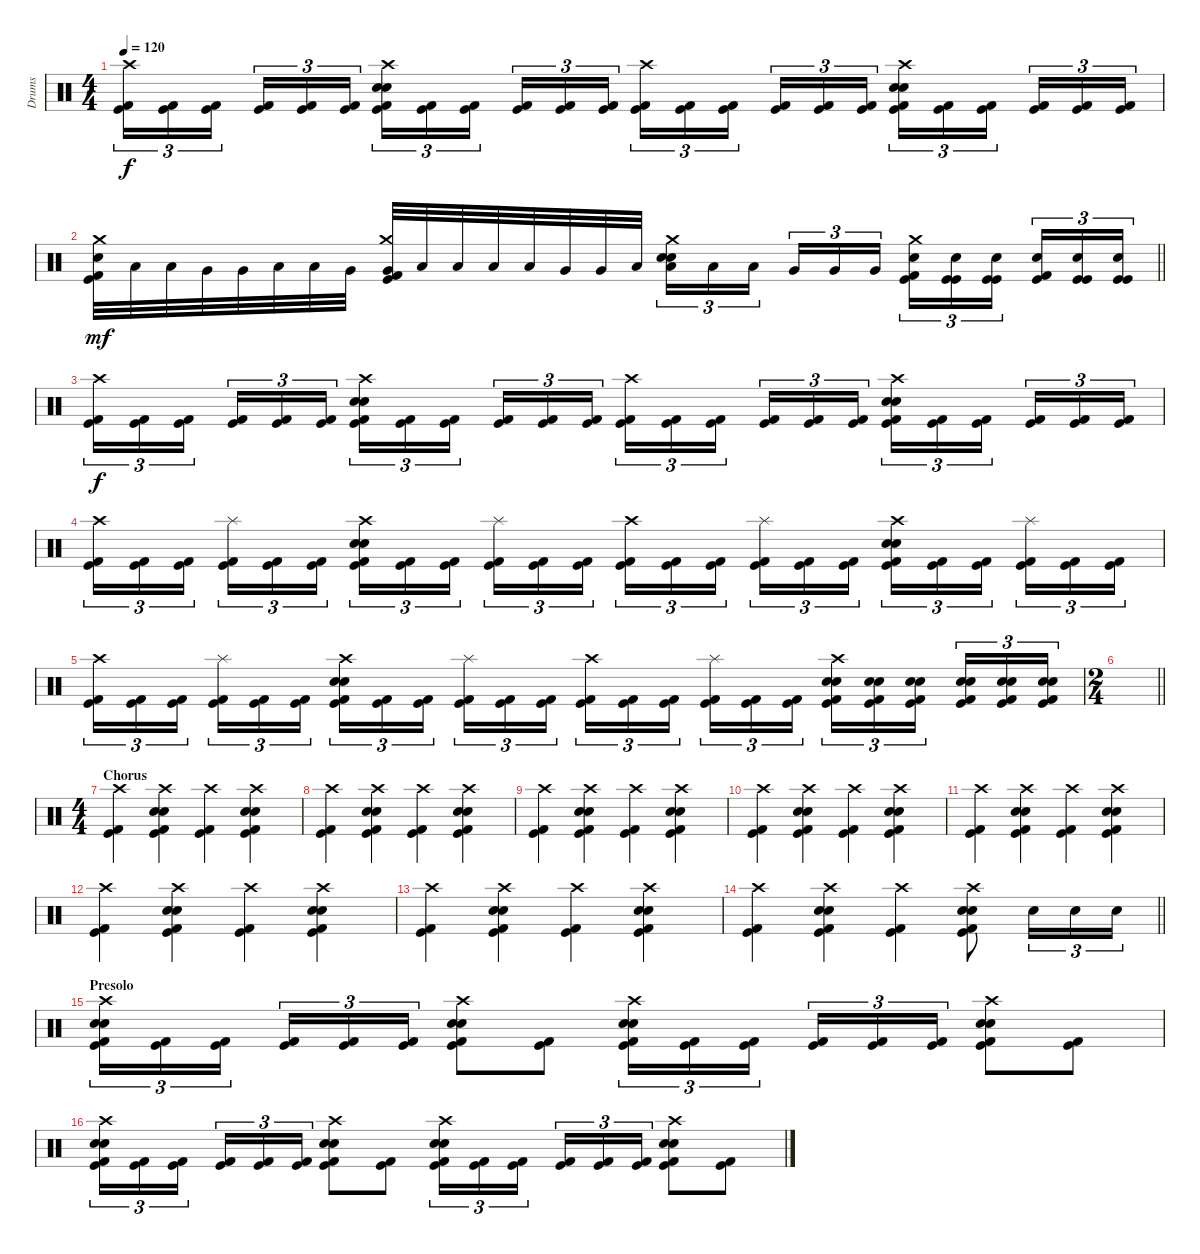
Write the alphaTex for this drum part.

\track ("Drums" "Drums") {instrument percussion}
\staff {score}
\articulation defaults
\ts (4 4)
\tempo 120
\clef neutral
\ks c
("Crash high (hit)" "Kick (hit) 2" "Kick (hit)").16{tu (3 2) dy f} ("Kick (hit) 2" "Kick (hit)").16{tu (3 2)} ("Kick (hit) 2" "Kick (hit)").16{tu (3 2) beam splitsecondary} ("Kick (hit) 2" "Kick (hit)").16{tu (3 2)} ("Kick (hit) 2" "Kick (hit)").16{tu (3 2)} ("Kick (hit) 2" "Kick (hit)").16{tu (3 2)} ("Crash high (hit)" "Electric Snare (hit)" "Electric Snare (hit)" "Kick (hit) 2" "Kick (hit)").16{tu (3 2)} ("Kick (hit) 2" "Kick (hit)").16{tu (3 2)} ("Kick (hit) 2" "Kick (hit)").16{tu (3 2) beam splitsecondary} ("Kick (hit) 2" "Kick (hit)").16{tu (3 2)} ("Kick (hit) 2" "Kick (hit)").16{tu (3 2)} ("Kick (hit) 2" "Kick (hit)").16{tu (3 2)} ("Crash high (hit)" "Kick (hit) 2" "Kick (hit)").16{tu (3 2)} ("Kick (hit) 2" "Kick (hit)").16{tu (3 2)} ("Kick (hit) 2" "Kick (hit)").16{tu (3 2) beam splitsecondary} ("Kick (hit) 2" "Kick (hit)").16{tu (3 2)} ("Kick (hit) 2" "Kick (hit)").16{tu (3 2)} ("Kick (hit) 2" "Kick (hit)").16{tu (3 2)} ("Crash high (hit)" "Electric Snare (hit)" "Electric Snare (hit)" "Kick (hit) 2" "Kick (hit)").16{tu (3 2)} ("Kick (hit) 2" "Kick (hit)").16{tu (3 2)} ("Kick (hit) 2" "Kick (hit)").16{tu (3 2) beam splitsecondary} ("Kick (hit) 2" "Kick (hit)").16{tu (3 2)} ("Kick (hit) 2" "Kick (hit)").16{tu (3 2)} ("Kick (hit) 2" "Kick (hit)").16{tu (3 2)} |
\barLineRight lightlight
("Crash medium (hit)" "Electric Snare (hit)" "Kick (hit)" "Kick (hit) 2").32{dy mf} "Low Tom (hit)".32 "Low Tom (hit)".32 "Very Low Tom (hit)".32 "Very Low Tom (hit)".32 "Low Floor Tom (hit)".32 "Low Floor Tom (hit)".32 "Very Low Tom (hit)".32 ("Crash medium (hit)" "Very Low Tom (hit)" "Kick (hit)" "Kick (hit) 2").32 "Low Floor Tom (hit)".32 "Low Floor Tom (hit)".32 "Low Tom (hit)".32 "Low Tom (hit)".32 "Very Low Tom (hit)".32 "Very Low Tom (hit)".32 "Low Floor Tom (hit)".32 ("Crash medium (hit)" "Low Floor Tom (hit)" "Electric Snare (hit)" "Electric Snare (hit)").16{tu (3 2)} "Low Floor Tom (hit)".16{tu (3 2)} "Low Floor Tom (hit)".16{tu (3 2) beam splitsecondary} "Very Low Tom (hit)".16{tu (3 2)} "Very Low Tom (hit)".16{tu (3 2)} "Very Low Tom (hit)".16{tu (3 2)} ("Crash medium (hit)" "Electric Snare (hit)" "Kick (hit)" "Kick (hit) 2").16{tu (3 2)} ("Electric Snare (hit)" "Kick (hit)" "Kick (hit)").16{tu (3 2)} ("Electric Snare (hit)" "Kick (hit)" "Kick (hit)").16{tu (3 2) beam splitsecondary} ("Electric Snare (hit)" "Kick (hit) 2" "Kick (hit)").16{tu (3 2)} ("Electric Snare (hit)" "Kick (hit)" "Kick (hit)").16{tu (3 2)} ("Electric Snare (hit)" "Kick (hit)" "Kick (hit)").16{tu (3 2)} |
("Crash high (hit)" "Kick (hit) 2" "Kick (hit)").16{tu (3 2) dy f} ("Kick (hit) 2" "Kick (hit)").16{tu (3 2)} ("Kick (hit) 2" "Kick (hit)").16{tu (3 2) beam splitsecondary} ("Kick (hit) 2" "Kick (hit)").16{tu (3 2)} ("Kick (hit) 2" "Kick (hit)").16{tu (3 2)} ("Kick (hit) 2" "Kick (hit)").16{tu (3 2)} ("Crash high (hit)" "Electric Snare (hit)" "Electric Snare (hit)" "Kick (hit) 2" "Kick (hit)").16{tu (3 2)} ("Kick (hit) 2" "Kick (hit)").16{tu (3 2)} ("Kick (hit) 2" "Kick (hit)").16{tu (3 2) beam splitsecondary} ("Kick (hit) 2" "Kick (hit)").16{tu (3 2)} ("Kick (hit) 2" "Kick (hit)").16{tu (3 2)} ("Kick (hit) 2" "Kick (hit)").16{tu (3 2)} ("Crash high (hit)" "Kick (hit) 2" "Kick (hit)").16{tu (3 2)} ("Kick (hit) 2" "Kick (hit)").16{tu (3 2)} ("Kick (hit) 2" "Kick (hit)").16{tu (3 2) beam splitsecondary} ("Kick (hit) 2" "Kick (hit)").16{tu (3 2)} ("Kick (hit) 2" "Kick (hit)").16{tu (3 2)} ("Kick (hit) 2" "Kick (hit)").16{tu (3 2)} ("Crash high (hit)" "Electric Snare (hit)" "Electric Snare (hit)" "Kick (hit) 2" "Kick (hit)").16{tu (3 2)} ("Kick (hit) 2" "Kick (hit)").16{tu (3 2)} ("Kick (hit) 2" "Kick (hit)").16{tu (3 2) beam splitsecondary} ("Kick (hit) 2" "Kick (hit)").16{tu (3 2)} ("Kick (hit) 2" "Kick (hit)").16{tu (3 2)} ("Kick (hit) 2" "Kick (hit)").16{tu (3 2)} |
("Crash high (hit)" "Kick (hit) 2" "Kick (hit)").16{tu (3 2)} ("Kick (hit) 2" "Kick (hit)").16{tu (3 2)} ("Kick (hit) 2" "Kick (hit)").16{tu (3 2) beam splitsecondary} ("Splash (hit)" "Kick (hit) 2" "Kick (hit)").16{tu (3 2)} ("Kick (hit) 2" "Kick (hit)").16{tu (3 2)} ("Kick (hit) 2" "Kick (hit)").16{tu (3 2)} ("Crash high (hit)" "Electric Snare (hit)" "Electric Snare (hit)" "Kick (hit) 2" "Kick (hit)").16{tu (3 2)} ("Kick (hit) 2" "Kick (hit)").16{tu (3 2)} ("Kick (hit) 2" "Kick (hit)").16{tu (3 2) beam splitsecondary} ("Splash (hit)" "Kick (hit) 2" "Kick (hit)").16{tu (3 2)} ("Kick (hit) 2" "Kick (hit)").16{tu (3 2)} ("Kick (hit) 2" "Kick (hit)").16{tu (3 2)} ("Crash high (hit)" "Kick (hit) 2" "Kick (hit)").16{tu (3 2)} ("Kick (hit) 2" "Kick (hit)").16{tu (3 2)} ("Kick (hit) 2" "Kick (hit)").16{tu (3 2) beam splitsecondary} ("Splash (hit)" "Kick (hit) 2" "Kick (hit)").16{tu (3 2)} ("Kick (hit) 2" "Kick (hit)").16{tu (3 2)} ("Kick (hit) 2" "Kick (hit)").16{tu (3 2)} ("Crash high (hit)" "Electric Snare (hit)" "Electric Snare (hit)" "Kick (hit) 2" "Kick (hit)").16{tu (3 2)} ("Kick (hit) 2" "Kick (hit)").16{tu (3 2)} ("Kick (hit) 2" "Kick (hit)").16{tu (3 2) beam splitsecondary} ("Splash (hit)" "Kick (hit) 2" "Kick (hit)").16{tu (3 2)} ("Kick (hit) 2" "Kick (hit)").16{tu (3 2)} ("Kick (hit) 2" "Kick (hit)").16{tu (3 2)} |
("Crash high (hit)" "Kick (hit) 2" "Kick (hit)").16{tu (3 2)} ("Kick (hit) 2" "Kick (hit)").16{tu (3 2)} ("Kick (hit) 2" "Kick (hit)").16{tu (3 2) beam splitsecondary} ("Splash (hit)" "Kick (hit) 2" "Kick (hit)").16{tu (3 2)} ("Kick (hit) 2" "Kick (hit)").16{tu (3 2)} ("Kick (hit) 2" "Kick (hit)").16{tu (3 2)} ("Crash high (hit)" "Electric Snare (hit)" "Electric Snare (hit)" "Kick (hit) 2" "Kick (hit)").16{tu (3 2)} ("Kick (hit) 2" "Kick (hit)").16{tu (3 2)} ("Kick (hit) 2" "Kick (hit)").16{tu (3 2) beam splitsecondary} ("Splash (hit)" "Kick (hit) 2" "Kick (hit)").16{tu (3 2)} ("Kick (hit) 2" "Kick (hit)").16{tu (3 2)} ("Kick (hit) 2" "Kick (hit)").16{tu (3 2)} ("Crash high (hit)" "Kick (hit) 2" "Kick (hit)").16{tu (3 2)} ("Kick (hit) 2" "Kick (hit)").16{tu (3 2)} ("Kick (hit) 2" "Kick (hit)").16{tu (3 2) beam splitsecondary} ("Splash (hit)" "Kick (hit) 2" "Kick (hit)").16{tu (3 2)} ("Kick (hit) 2" "Kick (hit)").16{tu (3 2)} ("Kick (hit) 2" "Kick (hit)").16{tu (3 2)} ("Crash high (hit)" "Electric Snare (hit)" "Electric Snare (hit)" "Kick (hit) 2" "Kick (hit)").16{tu (3 2)} ("Electric Snare (hit)" "Electric Snare (hit)" "Kick (hit) 2" "Kick (hit)").16{tu (3 2)} ("Electric Snare (hit)" "Electric Snare (hit)" "Kick (hit) 2" "Kick (hit)").16{tu (3 2) beam splitsecondary} ("Electric Snare (hit)" "Electric Snare (hit)" "Kick (hit) 2" "Kick (hit)").16{tu (3 2)} ("Electric Snare (hit)" "Electric Snare (hit)" "Kick (hit) 2" "Kick (hit)").16{tu (3 2)} ("Electric Snare (hit)" "Electric Snare (hit)" "Kick (hit) 2" "Kick (hit)").16{tu (3 2)} |
\ts (2 4)
\barLineRight lightlight
|
\ts (4 4)
\section ("" "Chorus")
("Crash high (hit)" "Kick (hit)" "Kick (hit) 2").4 ("Crash high (hit)" "Electric Snare (hit)" "Electric Snare (hit)" "Kick (hit)" "Kick (hit) 2").4 ("Crash high (hit)" "Kick (hit)" "Kick (hit) 2").4 ("Crash high (hit)" "Electric Snare (hit)" "Electric Snare (hit)" "Kick (hit)" "Kick (hit) 2").4 |
("Crash high (hit)" "Kick (hit)" "Kick (hit) 2").4 ("Crash high (hit)" "Electric Snare (hit)" "Electric Snare (hit)" "Kick (hit)" "Kick (hit) 2").4 ("Crash high (hit)" "Kick (hit)" "Kick (hit) 2").4 ("Crash high (hit)" "Electric Snare (hit)" "Electric Snare (hit)" "Kick (hit)" "Kick (hit) 2").4 |
("Crash high (hit)" "Kick (hit)" "Kick (hit) 2").4 ("Crash high (hit)" "Electric Snare (hit)" "Electric Snare (hit)" "Kick (hit)" "Kick (hit) 2").4 ("Crash high (hit)" "Kick (hit)" "Kick (hit) 2").4 ("Crash high (hit)" "Electric Snare (hit)" "Electric Snare (hit)" "Kick (hit)" "Kick (hit) 2").4 |
("Crash high (hit)" "Kick (hit)" "Kick (hit) 2").4 ("Crash high (hit)" "Electric Snare (hit)" "Electric Snare (hit)" "Kick (hit)" "Kick (hit) 2").4 ("Crash high (hit)" "Kick (hit)" "Kick (hit) 2").4 ("Crash high (hit)" "Electric Snare (hit)" "Electric Snare (hit)" "Kick (hit)" "Kick (hit) 2").4 |
("Crash high (hit)" "Kick (hit)" "Kick (hit) 2").4 ("Crash high (hit)" "Electric Snare (hit)" "Electric Snare (hit)" "Kick (hit)" "Kick (hit) 2").4 ("Crash high (hit)" "Kick (hit)" "Kick (hit) 2").4 ("Crash high (hit)" "Electric Snare (hit)" "Electric Snare (hit)" "Kick (hit)" "Kick (hit) 2").4 |
("Crash high (hit)" "Kick (hit)" "Kick (hit) 2").4 ("Crash high (hit)" "Electric Snare (hit)" "Electric Snare (hit)" "Kick (hit)" "Kick (hit) 2").4 ("Crash high (hit)" "Kick (hit)" "Kick (hit) 2").4 ("Crash high (hit)" "Electric Snare (hit)" "Electric Snare (hit)" "Kick (hit)" "Kick (hit) 2").4 |
("Crash high (hit)" "Kick (hit)" "Kick (hit) 2").4 ("Crash high (hit)" "Electric Snare (hit)" "Electric Snare (hit)" "Kick (hit)" "Kick (hit) 2").4 ("Crash high (hit)" "Kick (hit)" "Kick (hit) 2").4 ("Crash high (hit)" "Electric Snare (hit)" "Electric Snare (hit)" "Kick (hit)" "Kick (hit) 2").4 |
\barLineRight lightlight
("Crash high (hit)" "Kick (hit)" "Kick (hit) 2").4 ("Crash high (hit)" "Electric Snare (hit)" "Electric Snare (hit)" "Kick (hit)" "Kick (hit) 2").4 ("Crash high (hit)" "Kick (hit)" "Kick (hit) 2").4 ("Crash high (hit)" "Electric Snare (hit)" "Electric Snare (hit)" "Kick (hit)" "Kick (hit) 2").8 "Electric Snare (hit)".16{tu (3 2)} "Electric Snare (hit)".16{tu (3 2)} "Electric Snare (hit)".16{tu (3 2)} |
\section ("" "Presolo")
("Crash high (hit)" "Electric Snare (hit)" "Electric Snare (hit)" "Kick (hit) 2" "Kick (hit)").16{tu (3 2)} ("Kick (hit) 2" "Kick (hit)").16{tu (3 2)} ("Kick (hit) 2" "Kick (hit)").16{tu (3 2) beam splitsecondary} ("Kick (hit) 2" "Kick (hit)").16{tu (3 2)} ("Kick (hit) 2" "Kick (hit)").16{tu (3 2)} ("Kick (hit) 2" "Kick (hit)").16{tu (3 2)} ("Crash high (hit)" "Electric Snare (hit)" "Electric Snare (hit)" "Kick (hit) 2" "Kick (hit)").8 ("Kick (hit) 2" "Kick (hit)").8 ("Crash high (hit)" "Electric Snare (hit)" "Electric Snare (hit)" "Kick (hit) 2" "Kick (hit)").16{tu (3 2)} ("Kick (hit) 2" "Kick (hit)").16{tu (3 2)} ("Kick (hit) 2" "Kick (hit)").16{tu (3 2) beam splitsecondary} ("Kick (hit) 2" "Kick (hit)").16{tu (3 2)} ("Kick (hit) 2" "Kick (hit)").16{tu (3 2)} ("Kick (hit) 2" "Kick (hit)").16{tu (3 2)} ("Crash high (hit)" "Electric Snare (hit)" "Electric Snare (hit)" "Kick (hit) 2" "Kick (hit)").8 ("Kick (hit) 2" "Kick (hit)").8 |
("Crash high (hit)" "Electric Snare (hit)" "Electric Snare (hit)" "Kick (hit) 2" "Kick (hit)").16{tu (3 2)} ("Kick (hit) 2" "Kick (hit)").16{tu (3 2)} ("Kick (hit) 2" "Kick (hit)").16{tu (3 2) beam splitsecondary} ("Kick (hit) 2" "Kick (hit)").16{tu (3 2)} ("Kick (hit) 2" "Kick (hit)").16{tu (3 2)} ("Kick (hit) 2" "Kick (hit)").16{tu (3 2)} ("Crash high (hit)" "Electric Snare (hit)" "Electric Snare (hit)" "Kick (hit) 2" "Kick (hit)").8 ("Kick (hit) 2" "Kick (hit)").8 ("Crash high (hit)" "Electric Snare (hit)" "Electric Snare (hit)" "Kick (hit) 2" "Kick (hit)").16{tu (3 2)} ("Kick (hit) 2" "Kick (hit)").16{tu (3 2)} ("Kick (hit) 2" "Kick (hit)").16{tu (3 2) beam splitsecondary} ("Kick (hit) 2" "Kick (hit)").16{tu (3 2)} ("Kick (hit) 2" "Kick (hit)").16{tu (3 2)} ("Kick (hit) 2" "Kick (hit)").16{tu (3 2)} ("Crash high (hit)" "Electric Snare (hit)" "Electric Snare (hit)" "Kick (hit) 2" "Kick (hit)").8 ("Kick (hit) 2" "Kick (hit)").8
